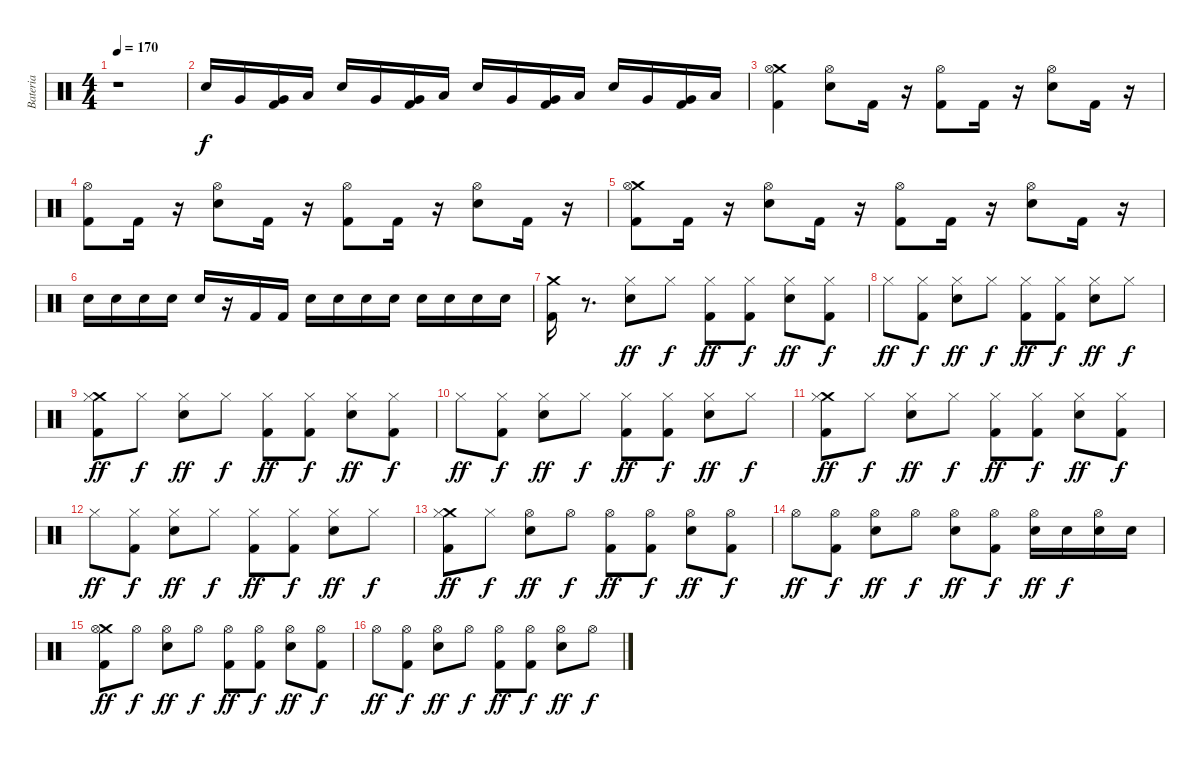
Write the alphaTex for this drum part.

\track ("Bateria" "Bateria") {instrument percussion}
\staff {score}
\articulation defaults
\ts (4 4)
\tempo 170
\clef neutral
\ks c
r.1{dy f} |
"Electric Snare (hit)".16 "Very Low Tom (hit)".16 ("Kick (hit) 2" "Very Low Tom (hit)").16 "Low Floor Tom (hit)".16 "Electric Snare (hit)".16 "Very Low Tom (hit)".16 ("Kick (hit) 2" "Very Low Tom (hit)").16 "Low Floor Tom (hit)".16 "Electric Snare (hit)".16 "Very Low Tom (hit)".16 ("Kick (hit) 2" "Very Low Tom (hit)").16 "Low Floor Tom (hit)".16 "Electric Snare (hit)".16 "Very Low Tom (hit)".16 ("Kick (hit) 2" "Very Low Tom (hit)").16 "Low Floor Tom (hit)".16 |
("Crash medium (hit)" "Hi-Hat (open)" "Kick (hit) 2").4 ("Hi-Hat (open)" "Electric Snare (hit)").8 "Kick (hit) 2".16 r.16 ("Hi-Hat (open)" "Kick (hit) 2").8 "Kick (hit) 2".16 r.16 ("Hi-Hat (open)" "Electric Snare (hit)").8 "Kick (hit) 2".16 r.16 |
("Hi-Hat (open)" "Kick (hit) 2").8 "Kick (hit) 2".16 r.16 ("Hi-Hat (open)" "Electric Snare (hit)").8 "Kick (hit) 2".16 r.16 ("Hi-Hat (open)" "Kick (hit) 2").8 "Kick (hit) 2".16 r.16 ("Hi-Hat (open)" "Electric Snare (hit)").8 "Kick (hit) 2".16 r.16 |
("Crash medium (hit)" "Hi-Hat (open)" "Kick (hit) 2").8 "Kick (hit) 2".16 r.16 ("Hi-Hat (open)" "Electric Snare (hit)").8 "Kick (hit) 2".16 r.16 ("Hi-Hat (open)" "Kick (hit) 2").8 "Kick (hit) 2".16 r.16 ("Hi-Hat (open)" "Electric Snare (hit)").8 "Kick (hit) 2".16 r.16 |
"Electric Snare (hit)".16 "Electric Snare (hit)".16 "Electric Snare (hit)".16 "Electric Snare (hit)".16 "Electric Snare (hit)".16 r.16 "Kick (hit) 2".16 "Kick (hit) 2".16 "Electric Snare (hit)".16 "Electric Snare (hit)".16 "Electric Snare (hit)".16 "Electric Snare (hit)".16 "Electric Snare (hit)".16 "Electric Snare (hit)".16 "Electric Snare (hit)".16 "Electric Snare (hit)".16 |
("Crash medium (hit)" "Kick (hit) 2").16 r.8{d} ("Hi-Hat (closed)" "Electric Snare (hit)").8{dy ff} "Hi-Hat (closed)".8{dy f} ("Hi-Hat (closed)" "Kick (hit) 2").8{dy ff} ("Hi-Hat (closed)" "Kick (hit) 2").8{dy f} ("Hi-Hat (closed)" "Electric Snare (hit)").8{dy ff} ("Hi-Hat (closed)" "Kick (hit) 2").8{dy f} |
"Hi-Hat (closed)".8{dy ff} ("Hi-Hat (closed)" "Kick (hit) 2").8{dy f} ("Hi-Hat (closed)" "Electric Snare (hit)").8{dy ff} "Hi-Hat (closed)".8{dy f} ("Hi-Hat (closed)" "Kick (hit) 2").8{dy ff} ("Hi-Hat (closed)" "Kick (hit) 2").8{dy f} ("Hi-Hat (closed)" "Electric Snare (hit)").8{dy ff} "Hi-Hat (closed)".8{dy f} |
("Crash medium (hit)" "Hi-Hat (closed)" "Kick (hit) 2").8{dy ff} "Hi-Hat (closed)".8{dy f} ("Hi-Hat (closed)" "Electric Snare (hit)").8{dy ff} "Hi-Hat (closed)".8{dy f} ("Hi-Hat (closed)" "Kick (hit) 2").8{dy ff} ("Hi-Hat (closed)" "Kick (hit) 2").8{dy f} ("Hi-Hat (closed)" "Electric Snare (hit)").8{dy ff} ("Hi-Hat (closed)" "Kick (hit) 2").8{dy f} |
"Hi-Hat (closed)".8{dy ff} ("Hi-Hat (closed)" "Kick (hit) 2").8{dy f} ("Hi-Hat (closed)" "Electric Snare (hit)").8{dy ff} "Hi-Hat (closed)".8{dy f} ("Hi-Hat (closed)" "Kick (hit) 2").8{dy ff} ("Hi-Hat (closed)" "Kick (hit) 2").8{dy f} ("Hi-Hat (closed)" "Electric Snare (hit)").8{dy ff} "Hi-Hat (closed)".8{dy f} |
("Crash medium (hit)" "Hi-Hat (closed)" "Kick (hit) 2").8{dy ff} "Hi-Hat (closed)".8{dy f} ("Hi-Hat (closed)" "Electric Snare (hit)").8{dy ff} "Hi-Hat (closed)".8{dy f} ("Hi-Hat (closed)" "Kick (hit) 2").8{dy ff} ("Hi-Hat (closed)" "Kick (hit) 2").8{dy f} ("Hi-Hat (closed)" "Electric Snare (hit)").8{dy ff} ("Hi-Hat (closed)" "Kick (hit) 2").8{dy f} |
"Hi-Hat (closed)".8{dy ff} ("Hi-Hat (closed)" "Kick (hit) 2").8{dy f} ("Hi-Hat (closed)" "Electric Snare (hit)").8{dy ff} "Hi-Hat (closed)".8{dy f} ("Hi-Hat (closed)" "Kick (hit) 2").8{dy ff} ("Hi-Hat (closed)" "Kick (hit) 2").8{dy f} ("Hi-Hat (closed)" "Electric Snare (hit)").8{dy ff} "Hi-Hat (closed)".8{dy f} |
("Crash medium (hit)" "Hi-Hat (closed)" "Kick (hit) 2").8{dy ff} "Hi-Hat (closed)".8{dy f} ("Hi-Hat (open)" "Electric Snare (hit)").8{dy ff} "Hi-Hat (open)".8{dy f} ("Hi-Hat (open)" "Kick (hit) 2").8{dy ff} ("Hi-Hat (open)" "Kick (hit) 2").8{dy f} ("Hi-Hat (open)" "Electric Snare (hit)").8{dy ff} ("Hi-Hat (open)" "Kick (hit) 2").8{dy f} |
"Hi-Hat (open)".8{dy ff} ("Hi-Hat (open)" "Kick (hit) 2").8{dy f} ("Hi-Hat (open)" "Electric Snare (hit)").8{dy ff} "Hi-Hat (open)".8{dy f} ("Hi-Hat (open)" "Electric Snare (hit)").8{dy ff} ("Hi-Hat (open)" "Kick (hit) 2").8{dy f} ("Hi-Hat (open)" "Electric Snare (hit)").16{dy ff} "Electric Snare (hit)".16{dy f} ("Hi-Hat (open)" "Electric Snare (hit)").16 "Electric Snare (hit)".16 |
("Crash medium (hit)" "Hi-Hat (open)" "Kick (hit) 2").8{dy ff} "Hi-Hat (open)".8{dy f} ("Hi-Hat (open)" "Electric Snare (hit)").8{dy ff} "Hi-Hat (open)".8{dy f} ("Hi-Hat (open)" "Kick (hit) 2").8{dy ff} ("Hi-Hat (open)" "Kick (hit) 2").8{dy f} ("Hi-Hat (open)" "Electric Snare (hit)").8{dy ff} ("Hi-Hat (open)" "Kick (hit) 2").8{dy f} |
"Hi-Hat (open)".8{dy ff} ("Hi-Hat (open)" "Kick (hit) 2").8{dy f} ("Hi-Hat (open)" "Electric Snare (hit)").8{dy ff} "Hi-Hat (open)".8{dy f} ("Hi-Hat (open)" "Kick (hit) 2").8{dy ff} ("Hi-Hat (open)" "Kick (hit) 2").8{dy f} ("Hi-Hat (open)" "Electric Snare (hit)").8{dy ff} "Hi-Hat (open)".8{dy f}
